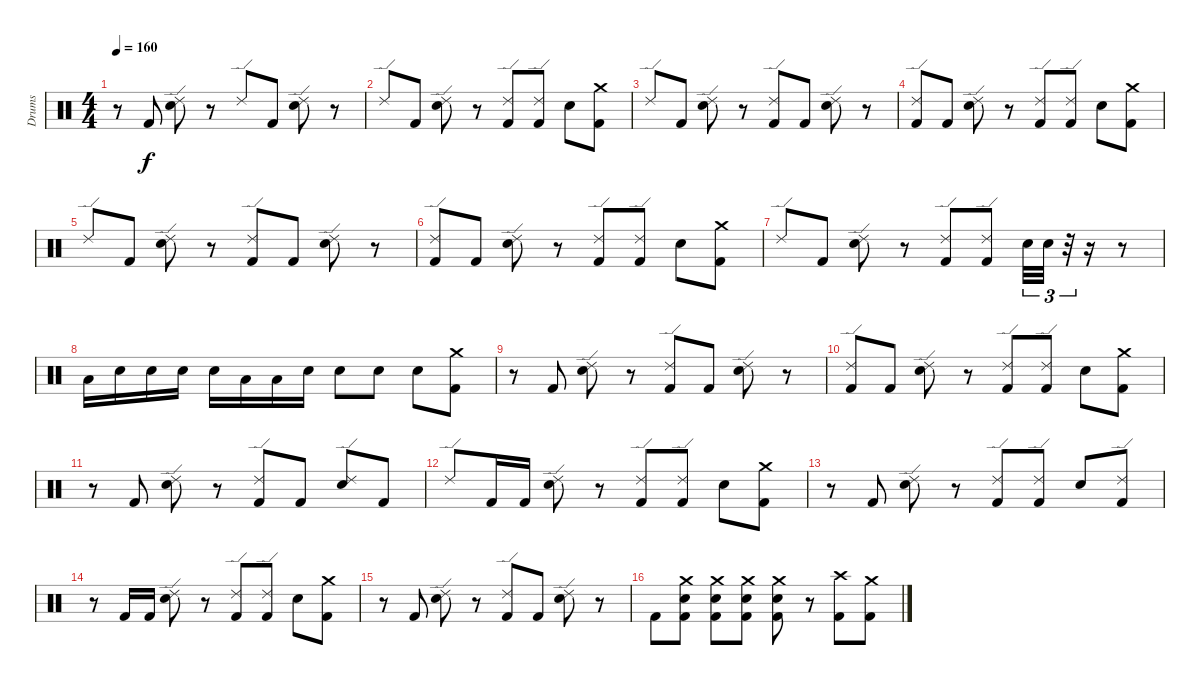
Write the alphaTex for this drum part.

\track ("Drums" "Drums") {instrument percussion}
\staff {score}
\articulation defaults
\ts (4 4)
\tempo 160
\clef neutral
\ks c
r.8{dy f} "Kick (hit) 2".8 ("Ride (edge) 2" "Snare (hit) 2").8 r.8 "Ride (edge) 2".8 "Kick (hit) 2".8 ("Ride (edge) 2" "Snare (hit) 2").8 r.8 |
"Ride (edge) 2".8 "Kick (hit) 2".8 ("Ride (edge) 2" "Snare (hit) 2").8 r.8 ("Ride (edge) 2" "Kick (hit) 2").8 ("Ride (edge) 2" "Kick (hit) 2").8 "Snare (hit) 2".8 ("Crash medium (hit)" "Kick (hit) 2").8 |
"Ride (edge) 2".8 "Kick (hit) 2".8 ("Ride (edge) 2" "Snare (hit) 2").8 r.8 ("Ride (edge) 2" "Kick (hit) 2").8 "Kick (hit) 2".8 ("Ride (edge) 2" "Snare (hit) 2").8 r.8 |
("Ride (edge) 2" "Kick (hit) 2").8 "Kick (hit) 2".8 ("Ride (edge) 2" "Snare (hit) 2").8 r.8 ("Ride (edge) 2" "Kick (hit) 2").8 ("Ride (edge) 2" "Kick (hit) 2").8 "Snare (hit) 2".8 ("Crash medium (hit)" "Kick (hit) 2").8 |
"Ride (edge) 2".8 "Kick (hit) 2".8 ("Ride (edge) 2" "Snare (hit) 2").8 r.8 ("Ride (edge) 2" "Kick (hit) 2").8 "Kick (hit) 2".8 ("Ride (edge) 2" "Snare (hit) 2").8 r.8 |
("Ride (edge) 2" "Kick (hit) 2").8 "Kick (hit) 2".8 ("Ride (edge) 2" "Snare (hit) 2").8 r.8 ("Ride (edge) 2" "Kick (hit) 2").8 ("Ride (edge) 2" "Kick (hit) 2").8 "Snare (hit) 2".8 ("Crash medium (hit)" "Kick (hit) 2").8 |
"Ride (edge) 2".8 "Kick (hit) 2".8 ("Ride (edge) 2" "Snare (hit) 2").8 r.8 ("Ride (edge) 2" "Kick (hit) 2").8 ("Ride (edge) 2" "Kick (hit) 2").8 "Snare (hit) 2".32{tu (3 2)} "Snare (hit) 2".32{tu (3 2)} r.32{tu (3 2)} r.16 r.8 |
"Low Tom (hit)".16 "Snare (hit) 2".16 "Snare (hit) 2".16 "Snare (hit) 2".16 "Snare (hit) 2".16 "Low Tom (hit)".16 "Low Tom (hit)".16 "Snare (hit) 2".16 "Snare (hit) 2".8 "Snare (hit) 2".8 "Snare (hit) 2".8 ("Crash medium (hit)" "Kick (hit) 2").8 |
r.8 "Kick (hit) 2".8 ("Ride (edge) 2" "Snare (hit) 2").8 r.8 ("Ride (edge) 2" "Kick (hit) 2").8 "Kick (hit) 2".8 ("Ride (edge) 2" "Snare (hit) 2").8 r.8 |
("Ride (edge) 2" "Kick (hit) 2").8 "Kick (hit) 2".8 ("Ride (edge) 2" "Snare (hit) 2").8 r.8 ("Ride (edge) 2" "Kick (hit) 2").8 ("Ride (edge) 2" "Kick (hit) 2").8 "Snare (hit) 2".8 ("Crash medium (hit)" "Kick (hit) 2").8 |
r.8 "Kick (hit) 2".8 ("Ride (edge) 2" "Snare (hit) 2").8 r.8 ("Ride (edge) 2" "Kick (hit) 2").8 "Kick (hit) 2".8 ("Ride (edge) 2" "Snare (hit) 2").8 "Kick (hit) 2".8 |
"Ride (edge) 2".8 "Kick (hit) 2".16 "Kick (hit) 2".16 ("Ride (edge) 2" "Snare (hit) 2").8 r.8 ("Ride (edge) 2" "Kick (hit) 2").8 ("Ride (edge) 2" "Kick (hit) 2").8 "Snare (hit) 2".8 ("Crash medium (hit)" "Kick (hit) 2").8 |
r.8 "Kick (hit) 2".8 ("Ride (edge) 2" "Snare (hit) 2").8 r.8 ("Ride (edge) 2" "Kick (hit) 2").8 ("Ride (edge) 2" "Kick (hit) 2").8 "Snare (hit) 2".8 ("Ride (edge) 2" "Kick (hit) 2").8 |
r.8 "Kick (hit) 2".16 "Kick (hit) 2".16 ("Ride (edge) 2" "Snare (hit) 2").8 r.8 ("Ride (edge) 2" "Kick (hit) 2").8 ("Ride (edge) 2" "Kick (hit) 2").8 "Snare (hit) 2".8 ("Crash medium (hit)" "Kick (hit) 2").8 |
r.8 "Kick (hit) 2".8 ("Ride (edge) 2" "Snare (hit) 2").8 r.8 ("Ride (edge) 2" "Kick (hit) 2").8 "Kick (hit) 2".8 ("Ride (edge) 2" "Snare (hit) 2").8 r.8 |
"Kick (hit) 2".8 ("Crash medium (hit)" "Snare (hit) 2" "Kick (hit) 2").8 ("Crash medium (hit)" "Snare (hit) 2" "Kick (hit) 2").8 ("Crash medium (hit)" "Snare (hit) 2" "Kick (hit) 2").8 ("Crash medium (hit)" "Snare (hit) 2" "Kick (hit) 2").8 r.8 ("Crash high (hit)" "Kick (hit) 2").8 ("Crash medium (hit)" "Kick (hit) 2").8
